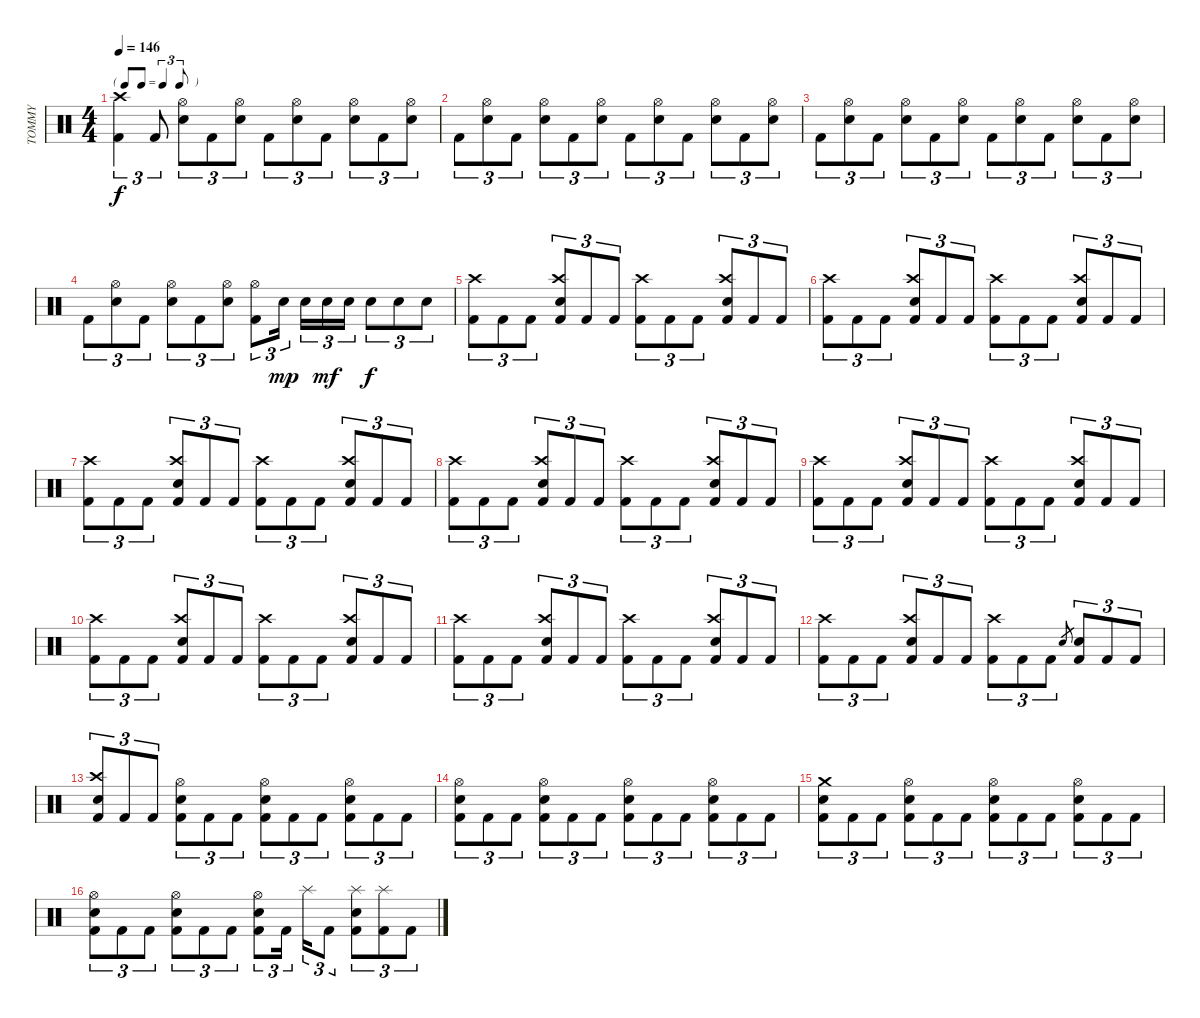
\track ("TOMMY" "TOMMY") {instrument percussion}
\staff {score}
\articulation defaults
\ts (4 4)
\tf triplet8th
\tempo 146
\clef neutral
\ks c
("Kick (hit) 2" "Crash high (hit)").4{tu (3 2) dy f} "Kick (hit) 2".8{tu (3 2)} ("Snare (hit) 2" "Hi-Hat (open)").8{tu (3 2)} "Kick (hit) 2".8{tu (3 2)} ("Snare (hit) 2" "Hi-Hat (open)").8{tu (3 2)} "Kick (hit) 2".8{tu (3 2)} ("Snare (hit) 2" "Hi-Hat (open)").8{tu (3 2)} "Kick (hit) 2".8{tu (3 2)} ("Snare (hit) 2" "Hi-Hat (open)").8{tu (3 2)} "Kick (hit) 2".8{tu (3 2)} ("Snare (hit) 2" "Hi-Hat (open)").8{tu (3 2)} |
"Kick (hit) 2".8{tu (3 2)} ("Snare (hit) 2" "Hi-Hat (open)").8{tu (3 2)} "Kick (hit) 2".8{tu (3 2)} ("Snare (hit) 2" "Hi-Hat (open)").8{tu (3 2)} "Kick (hit) 2".8{tu (3 2)} ("Snare (hit) 2" "Hi-Hat (open)").8{tu (3 2)} "Kick (hit) 2".8{tu (3 2)} ("Snare (hit) 2" "Hi-Hat (open)").8{tu (3 2)} "Kick (hit) 2".8{tu (3 2)} ("Snare (hit) 2" "Hi-Hat (open)").8{tu (3 2)} "Kick (hit) 2".8{tu (3 2)} ("Snare (hit) 2" "Hi-Hat (open)").8{tu (3 2)} |
"Kick (hit) 2".8{tu (3 2)} ("Snare (hit) 2" "Hi-Hat (open)").8{tu (3 2)} "Kick (hit) 2".8{tu (3 2)} ("Snare (hit) 2" "Hi-Hat (open)").8{tu (3 2)} "Kick (hit) 2".8{tu (3 2)} ("Snare (hit) 2" "Hi-Hat (open)").8{tu (3 2)} "Kick (hit) 2".8{tu (3 2)} ("Snare (hit) 2" "Hi-Hat (open)").8{tu (3 2)} "Kick (hit) 2".8{tu (3 2)} ("Snare (hit) 2" "Hi-Hat (open)").8{tu (3 2)} "Kick (hit) 2".8{tu (3 2)} ("Snare (hit) 2" "Hi-Hat (open)").8{tu (3 2)} |
"Kick (hit) 2".8{tu (3 2)} ("Snare (hit) 2" "Hi-Hat (open)").8{tu (3 2)} "Kick (hit) 2".8{tu (3 2)} ("Snare (hit) 2" "Hi-Hat (open)").8{tu (3 2)} "Kick (hit) 2".8{tu (3 2)} ("Snare (hit) 2" "Hi-Hat (open)").8{tu (3 2)} ("Kick (hit) 2" "Hi-Hat (open)").8{tu (3 2)} "Snare (hit) 2".16{tu (3 2) dy mp} "Snare (hit) 2".16{tu (3 2)} "Snare (hit) 2".16{tu (3 2) dy mf} "Snare (hit) 2".16{tu (3 2)} "Snare (hit) 2".8{tu (3 2) dy f} "Snare (hit) 2".8{tu (3 2)} "Snare (hit) 2".8{tu (3 2)} |
("Kick (hit) 2" "Crash high (hit)").8{tu (3 2)} "Kick (hit) 2".8{tu (3 2)} "Kick (hit) 2".8{tu (3 2)} ("Snare (hit) 2" "Kick (hit) 2" "Crash high (hit)").8{tu (3 2)} "Kick (hit) 2".8{tu (3 2)} "Kick (hit) 2".8{tu (3 2)} ("Kick (hit) 2" "Crash high (hit)").8{tu (3 2)} "Kick (hit) 2".8{tu (3 2)} "Kick (hit) 2".8{tu (3 2)} ("Snare (hit) 2" "Kick (hit) 2" "Crash high (hit)").8{tu (3 2)} "Kick (hit) 2".8{tu (3 2)} "Kick (hit) 2".8{tu (3 2)} |
("Kick (hit) 2" "Crash high (hit)").8{tu (3 2)} "Kick (hit) 2".8{tu (3 2)} "Kick (hit) 2".8{tu (3 2)} ("Snare (hit) 2" "Kick (hit) 2" "Crash high (hit)").8{tu (3 2)} "Kick (hit) 2".8{tu (3 2)} "Kick (hit) 2".8{tu (3 2)} ("Kick (hit) 2" "Crash high (hit)").8{tu (3 2)} "Kick (hit) 2".8{tu (3 2)} "Kick (hit) 2".8{tu (3 2)} ("Snare (hit) 2" "Kick (hit) 2" "Crash high (hit)").8{tu (3 2)} "Kick (hit) 2".8{tu (3 2)} "Kick (hit) 2".8{tu (3 2)} |
("Kick (hit) 2" "Crash high (hit)").8{tu (3 2)} "Kick (hit) 2".8{tu (3 2)} "Kick (hit) 2".8{tu (3 2)} ("Snare (hit) 2" "Kick (hit) 2" "Crash high (hit)").8{tu (3 2)} "Kick (hit) 2".8{tu (3 2)} "Kick (hit) 2".8{tu (3 2)} ("Kick (hit) 2" "Crash high (hit)").8{tu (3 2)} "Kick (hit) 2".8{tu (3 2)} "Kick (hit) 2".8{tu (3 2)} ("Snare (hit) 2" "Kick (hit) 2" "Crash high (hit)").8{tu (3 2)} "Kick (hit) 2".8{tu (3 2)} "Kick (hit) 2".8{tu (3 2)} |
("Kick (hit) 2" "Crash high (hit)").8{tu (3 2)} "Kick (hit) 2".8{tu (3 2)} "Kick (hit) 2".8{tu (3 2)} ("Snare (hit) 2" "Kick (hit) 2" "Crash high (hit)").8{tu (3 2)} "Kick (hit) 2".8{tu (3 2)} "Kick (hit) 2".8{tu (3 2)} ("Kick (hit) 2" "Crash high (hit)").8{tu (3 2)} "Kick (hit) 2".8{tu (3 2)} "Kick (hit) 2".8{tu (3 2)} ("Snare (hit) 2" "Kick (hit) 2" "Crash high (hit)").8{tu (3 2)} "Kick (hit) 2".8{tu (3 2)} "Kick (hit) 2".8{tu (3 2)} |
("Kick (hit) 2" "Crash high (hit)").8{tu (3 2)} "Kick (hit) 2".8{tu (3 2)} "Kick (hit) 2".8{tu (3 2)} ("Snare (hit) 2" "Kick (hit) 2" "Crash high (hit)").8{tu (3 2)} "Kick (hit) 2".8{tu (3 2)} "Kick (hit) 2".8{tu (3 2)} ("Kick (hit) 2" "Crash high (hit)").8{tu (3 2)} "Kick (hit) 2".8{tu (3 2)} "Kick (hit) 2".8{tu (3 2)} ("Snare (hit) 2" "Kick (hit) 2" "Crash high (hit)").8{tu (3 2)} "Kick (hit) 2".8{tu (3 2)} "Kick (hit) 2".8{tu (3 2)} |
("Kick (hit) 2" "Crash high (hit)").8{tu (3 2)} "Kick (hit) 2".8{tu (3 2)} "Kick (hit) 2".8{tu (3 2)} ("Snare (hit) 2" "Kick (hit) 2" "Crash high (hit)").8{tu (3 2)} "Kick (hit) 2".8{tu (3 2)} "Kick (hit) 2".8{tu (3 2)} ("Kick (hit) 2" "Crash high (hit)").8{tu (3 2)} "Kick (hit) 2".8{tu (3 2)} "Kick (hit) 2".8{tu (3 2)} ("Snare (hit) 2" "Kick (hit) 2" "Crash high (hit)").8{tu (3 2)} "Kick (hit) 2".8{tu (3 2)} "Kick (hit) 2".8{tu (3 2)} |
("Kick (hit) 2" "Crash high (hit)").8{tu (3 2)} "Kick (hit) 2".8{tu (3 2)} "Kick (hit) 2".8{tu (3 2)} ("Snare (hit) 2" "Kick (hit) 2" "Crash high (hit)").8{tu (3 2)} "Kick (hit) 2".8{tu (3 2)} "Kick (hit) 2".8{tu (3 2)} ("Kick (hit) 2" "Crash high (hit)").8{tu (3 2)} "Kick (hit) 2".8{tu (3 2)} "Kick (hit) 2".8{tu (3 2)} ("Snare (hit) 2" "Kick (hit) 2" "Crash high (hit)").8{tu (3 2)} "Kick (hit) 2".8{tu (3 2)} "Kick (hit) 2".8{tu (3 2)} |
("Kick (hit) 2" "Crash high (hit)").8{tu (3 2)} "Kick (hit) 2".8{tu (3 2)} "Kick (hit) 2".8{tu (3 2)} ("Snare (hit) 2" "Kick (hit) 2" "Crash high (hit)").8{tu (3 2)} "Kick (hit) 2".8{tu (3 2)} "Kick (hit) 2".8{tu (3 2)} ("Kick (hit) 2" "Crash high (hit)").8{tu (3 2)} "Kick (hit) 2".8{tu (3 2)} "Kick (hit) 2".8{tu (3 2)} "Snare (hit) 2".8{gr} ("Snare (hit) 2" "Kick (hit) 2").8{tu (3 2)} "Kick (hit) 2".8{tu (3 2)} "Kick (hit) 2".8{tu (3 2)} |
("Snare (hit) 2" "Kick (hit) 2" "Crash high (hit)").8{tu (3 2)} "Kick (hit) 2".8{tu (3 2)} "Kick (hit) 2".8{tu (3 2)} ("Snare (hit) 2" "Kick (hit) 2" "Hi-Hat (open)").8{tu (3 2)} "Kick (hit) 2".8{tu (3 2)} "Kick (hit) 2".8{tu (3 2)} ("Snare (hit) 2" "Kick (hit) 2" "Hi-Hat (open)").8{tu (3 2)} "Kick (hit) 2".8{tu (3 2)} "Kick (hit) 2".8{tu (3 2)} ("Snare (hit) 2" "Kick (hit) 2" "Hi-Hat (open)").8{tu (3 2)} "Kick (hit) 2".8{tu (3 2)} "Kick (hit) 2".8{tu (3 2)} |
("Snare (hit) 2" "Kick (hit) 2" "Hi-Hat (open)").8{tu (3 2)} "Kick (hit) 2".8{tu (3 2)} "Kick (hit) 2".8{tu (3 2)} ("Snare (hit) 2" "Kick (hit) 2" "Hi-Hat (open)").8{tu (3 2)} "Kick (hit) 2".8{tu (3 2)} "Kick (hit) 2".8{tu (3 2)} ("Snare (hit) 2" "Kick (hit) 2" "Hi-Hat (open)").8{tu (3 2)} "Kick (hit) 2".8{tu (3 2)} "Kick (hit) 2".8{tu (3 2)} ("Snare (hit) 2" "Kick (hit) 2" "Hi-Hat (open)").8{tu (3 2)} "Kick (hit) 2".8{tu (3 2)} "Kick (hit) 2".8{tu (3 2)} |
("Snare (hit) 2" "Kick (hit) 2" "Crash medium (hit)").8{tu (3 2)} "Kick (hit) 2".8{tu (3 2)} "Kick (hit) 2".8{tu (3 2)} ("Snare (hit) 2" "Kick (hit) 2" "Hi-Hat (open)").8{tu (3 2)} "Kick (hit) 2".8{tu (3 2)} "Kick (hit) 2".8{tu (3 2)} ("Snare (hit) 2" "Kick (hit) 2" "Hi-Hat (open)").8{tu (3 2)} "Kick (hit) 2".8{tu (3 2)} "Kick (hit) 2".8{tu (3 2)} ("Snare (hit) 2" "Kick (hit) 2" "Hi-Hat (open)").8{tu (3 2)} "Kick (hit) 2".8{tu (3 2)} "Kick (hit) 2".8{tu (3 2)} |
("Snare (hit) 2" "Kick (hit) 2" "Hi-Hat (open)").8{tu (3 2)} "Kick (hit) 2".8{tu (3 2)} "Kick (hit) 2".8{tu (3 2)} ("Snare (hit) 2" "Kick (hit) 2" "Hi-Hat (open)").8{tu (3 2)} "Kick (hit) 2".8{tu (3 2)} "Kick (hit) 2".8{tu (3 2)} ("Snare (hit) 2" "Kick (hit) 2" "Hi-Hat (open)").8{tu (3 2)} "Kick (hit) 2".16{tu (3 2)} "Splash (hit)".16{tu (3 2)} "Kick (hit) 2".8{tu (3 2)} ("Snare (hit) 2" "Kick (hit) 2" "Splash (hit)").8{tu (3 2)} ("Kick (hit) 2" "Splash (hit)").8{tu (3 2)} "Kick (hit) 2".8{tu (3 2)}
